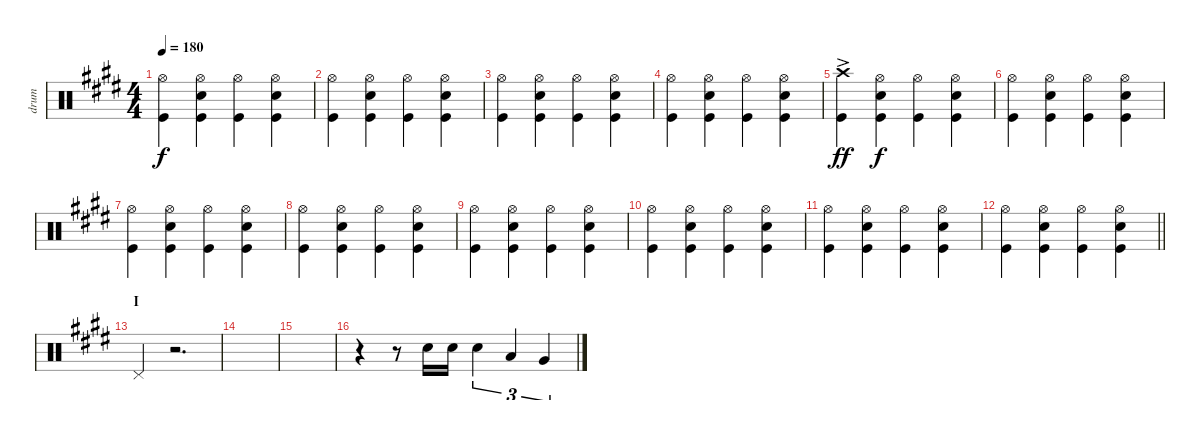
\track ("drum" "drum") {instrument percussion}
\staff {score}
\articulation defaults
\ts (4 4)
\tempo 180
\clef neutral
\ks e
("Hi-Hat (open)" "Kick (hit)").4{dy f} ("Hi-Hat (open)" "Snare (hit) 2" "Kick (hit)").4 ("Hi-Hat (open)" "Kick (hit)").4 ("Hi-Hat (open)" "Snare (hit) 2" "Kick (hit)").4 |
("Hi-Hat (open)" "Kick (hit)").4 ("Hi-Hat (open)" "Snare (hit) 2" "Kick (hit)").4 ("Hi-Hat (open)" "Kick (hit)").4 ("Hi-Hat (open)" "Snare (hit) 2" "Kick (hit)").4 |
("Hi-Hat (open)" "Kick (hit)").4 ("Hi-Hat (open)" "Snare (hit) 2" "Kick (hit)").4 ("Hi-Hat (open)" "Kick (hit)").4 ("Hi-Hat (open)" "Snare (hit) 2" "Kick (hit)").4 |
("Hi-Hat (open)" "Kick (hit)").4 ("Hi-Hat (open)" "Snare (hit) 2" "Kick (hit)").4 ("Hi-Hat (open)" "Kick (hit)").4 ("Hi-Hat (open)" "Snare (hit) 2" "Kick (hit)").4 |
("Crash high (hit)"{ac} "Kick (hit)").4{dy ff} ("Hi-Hat (open)" "Snare (hit) 2" "Kick (hit)").4{dy f} ("Hi-Hat (open)" "Kick (hit)").4 ("Hi-Hat (open)" "Snare (hit) 2" "Kick (hit)").4 |
("Hi-Hat (open)" "Kick (hit)").4 ("Hi-Hat (open)" "Snare (hit) 2" "Kick (hit)").4 ("Hi-Hat (open)" "Kick (hit)").4 ("Hi-Hat (open)" "Snare (hit) 2" "Kick (hit)").4 |
("Hi-Hat (open)" "Kick (hit)").4 ("Hi-Hat (open)" "Snare (hit) 2" "Kick (hit)").4 ("Hi-Hat (open)" "Kick (hit)").4 ("Hi-Hat (open)" "Snare (hit) 2" "Kick (hit)").4 |
("Hi-Hat (open)" "Kick (hit)").4 ("Hi-Hat (open)" "Snare (hit) 2" "Kick (hit)").4 ("Hi-Hat (open)" "Kick (hit)").4 ("Hi-Hat (open)" "Snare (hit) 2" "Kick (hit)").4 |
("Hi-Hat (open)" "Kick (hit)").4 ("Hi-Hat (open)" "Snare (hit) 2" "Kick (hit)").4 ("Hi-Hat (open)" "Kick (hit)").4 ("Hi-Hat (open)" "Snare (hit) 2" "Kick (hit)").4 |
("Hi-Hat (open)" "Kick (hit)").4 ("Hi-Hat (open)" "Snare (hit) 2" "Kick (hit)").4 ("Hi-Hat (open)" "Kick (hit)").4 ("Hi-Hat (open)" "Snare (hit) 2" "Kick (hit)").4 |
("Hi-Hat (open)" "Kick (hit)").4 ("Hi-Hat (open)" "Snare (hit) 2" "Kick (hit)").4 ("Hi-Hat (open)" "Kick (hit)").4 ("Hi-Hat (open)" "Snare (hit) 2" "Kick (hit)").4 |
\barLineRight lightlight
("Hi-Hat (open)" "Kick (hit)").4 ("Hi-Hat (open)" "Snare (hit) 2" "Kick (hit)").4 ("Hi-Hat (open)" "Kick (hit)").4 ("Hi-Hat (open)" "Snare (hit) 2" "Kick (hit)").4 |
\section ("" "I")
"Pedal Hi-Hat (hit)".4 r.2{d} |
|
|
r.4 r.8 "Snare (hit) 2".16 "Snare (hit) 2".16 "Snare (hit) 2".4{tu (3 2)} "Low Tom (hit)".4{tu (3 2)} "Very Low Tom (hit)".4{tu (3 2)}
